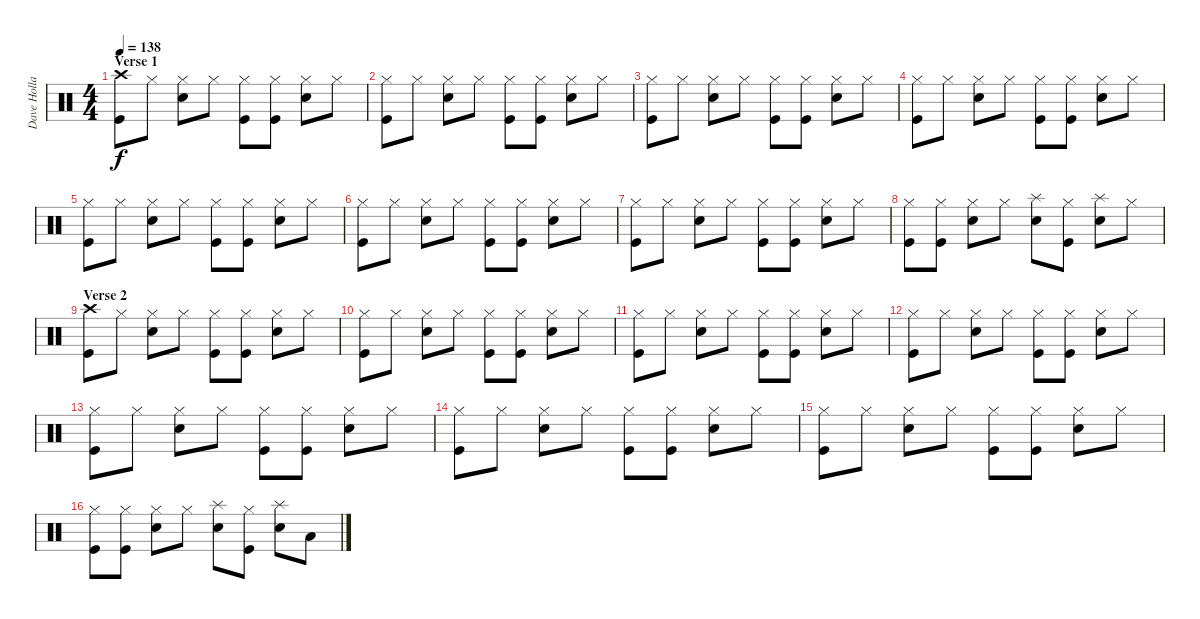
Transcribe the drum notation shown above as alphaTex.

\track ("Dave Holland" "Dave Holla") {instrument percussion}
\staff {score}
\articulation defaults
\ts (4 4)
\section ("" "Verse 1")
\tempo 138
\clef neutral
\ks c
("Crash high (hit)" "Kick (hit)").8{dy f} "Hi-Hat (closed)".8 ("Hi-Hat (closed)" "Electric Snare (hit)").8 "Hi-Hat (closed)".8 ("Hi-Hat (closed)" "Kick (hit)").8 ("Hi-Hat (closed)" "Kick (hit)").8 ("Hi-Hat (closed)" "Electric Snare (hit)").8 "Hi-Hat (closed)".8 |
("Hi-Hat (closed)" "Kick (hit)").8 "Hi-Hat (closed)".8 ("Hi-Hat (closed)" "Electric Snare (hit)").8 "Hi-Hat (closed)".8 ("Hi-Hat (closed)" "Kick (hit)").8 ("Hi-Hat (closed)" "Kick (hit)").8 ("Hi-Hat (closed)" "Electric Snare (hit)").8 "Hi-Hat (closed)".8 |
("Hi-Hat (closed)" "Kick (hit)").8 "Hi-Hat (closed)".8 ("Hi-Hat (closed)" "Electric Snare (hit)").8 "Hi-Hat (closed)".8 ("Hi-Hat (closed)" "Kick (hit)").8 ("Hi-Hat (closed)" "Kick (hit)").8 ("Hi-Hat (closed)" "Electric Snare (hit)").8 "Hi-Hat (closed)".8 |
("Hi-Hat (closed)" "Kick (hit)").8 "Hi-Hat (closed)".8 ("Hi-Hat (closed)" "Electric Snare (hit)").8 "Hi-Hat (closed)".8 ("Hi-Hat (closed)" "Kick (hit)").8 ("Hi-Hat (closed)" "Kick (hit)").8 ("Hi-Hat (closed)" "Electric Snare (hit)").8 "Hi-Hat (closed)".8 |
("Hi-Hat (closed)" "Kick (hit)").8 "Hi-Hat (closed)".8 ("Hi-Hat (closed)" "Electric Snare (hit)").8 "Hi-Hat (closed)".8 ("Hi-Hat (closed)" "Kick (hit)").8 ("Hi-Hat (closed)" "Kick (hit)").8 ("Hi-Hat (closed)" "Electric Snare (hit)").8 "Hi-Hat (closed)".8 |
("Hi-Hat (closed)" "Kick (hit)").8 "Hi-Hat (closed)".8 ("Hi-Hat (closed)" "Electric Snare (hit)").8 "Hi-Hat (closed)".8 ("Hi-Hat (closed)" "Kick (hit)").8 ("Hi-Hat (closed)" "Kick (hit)").8 ("Hi-Hat (closed)" "Electric Snare (hit)").8 "Hi-Hat (closed)".8 |
("Hi-Hat (closed)" "Kick (hit)").8 "Hi-Hat (closed)".8 ("Hi-Hat (closed)" "Electric Snare (hit)").8 "Hi-Hat (closed)".8 ("Hi-Hat (closed)" "Kick (hit)").8 ("Hi-Hat (closed)" "Kick (hit)").8 ("Hi-Hat (closed)" "Electric Snare (hit)").8 "Hi-Hat (closed)".8 |
("Hi-Hat (closed)" "Kick (hit)").8 ("Hi-Hat (closed)" "Kick (hit)").8 ("Hi-Hat (closed)" "Electric Snare (hit)").8 "Hi-Hat (closed)".8 ("Splash (hit)" "Electric Snare (hit)").8 ("Hi-Hat (closed)" "Kick (hit)").8 ("Splash (hit)" "Electric Snare (hit)").8 "Hi-Hat (closed)".8 |
\section ("" "Verse 2")
("Crash high (hit)" "Kick (hit)").8 "Hi-Hat (closed)".8 ("Hi-Hat (closed)" "Electric Snare (hit)").8 "Hi-Hat (closed)".8 ("Hi-Hat (closed)" "Kick (hit)").8 ("Hi-Hat (closed)" "Kick (hit)").8 ("Hi-Hat (closed)" "Electric Snare (hit)").8 "Hi-Hat (closed)".8 |
("Hi-Hat (closed)" "Kick (hit)").8 "Hi-Hat (closed)".8 ("Hi-Hat (closed)" "Electric Snare (hit)").8 "Hi-Hat (closed)".8 ("Hi-Hat (closed)" "Kick (hit)").8 ("Hi-Hat (closed)" "Kick (hit)").8 ("Hi-Hat (closed)" "Electric Snare (hit)").8 "Hi-Hat (closed)".8 |
("Hi-Hat (closed)" "Kick (hit)").8 "Hi-Hat (closed)".8 ("Hi-Hat (closed)" "Electric Snare (hit)").8 "Hi-Hat (closed)".8 ("Hi-Hat (closed)" "Kick (hit)").8 ("Hi-Hat (closed)" "Kick (hit)").8 ("Hi-Hat (closed)" "Electric Snare (hit)").8 "Hi-Hat (closed)".8 |
("Hi-Hat (closed)" "Kick (hit)").8 "Hi-Hat (closed)".8 ("Hi-Hat (closed)" "Electric Snare (hit)").8 "Hi-Hat (closed)".8 ("Hi-Hat (closed)" "Kick (hit)").8 ("Hi-Hat (closed)" "Kick (hit)").8 ("Hi-Hat (closed)" "Electric Snare (hit)").8 "Hi-Hat (closed)".8 |
("Hi-Hat (closed)" "Kick (hit)").8 "Hi-Hat (closed)".8 ("Hi-Hat (closed)" "Electric Snare (hit)").8 "Hi-Hat (closed)".8 ("Hi-Hat (closed)" "Kick (hit)").8 ("Hi-Hat (closed)" "Kick (hit)").8 ("Hi-Hat (closed)" "Electric Snare (hit)").8 "Hi-Hat (closed)".8 |
("Hi-Hat (closed)" "Kick (hit)").8 "Hi-Hat (closed)".8 ("Hi-Hat (closed)" "Electric Snare (hit)").8 "Hi-Hat (closed)".8 ("Hi-Hat (closed)" "Kick (hit)").8 ("Hi-Hat (closed)" "Kick (hit)").8 ("Hi-Hat (closed)" "Electric Snare (hit)").8 "Hi-Hat (closed)".8 |
("Hi-Hat (closed)" "Kick (hit)").8 "Hi-Hat (closed)".8 ("Hi-Hat (closed)" "Electric Snare (hit)").8 "Hi-Hat (closed)".8 ("Hi-Hat (closed)" "Kick (hit)").8 ("Hi-Hat (closed)" "Kick (hit)").8 ("Hi-Hat (closed)" "Electric Snare (hit)").8 "Hi-Hat (closed)".8 |
("Hi-Hat (closed)" "Kick (hit)").8 ("Hi-Hat (closed)" "Kick (hit)").8 ("Hi-Hat (closed)" "Electric Snare (hit)").8 "Hi-Hat (closed)".8 ("Splash (hit)" "Electric Snare (hit)").8 ("Hi-Hat (closed)" "Kick (hit)").8 ("Splash (hit)" "Electric Snare (hit)").8 "Low Tom (hit)".8
